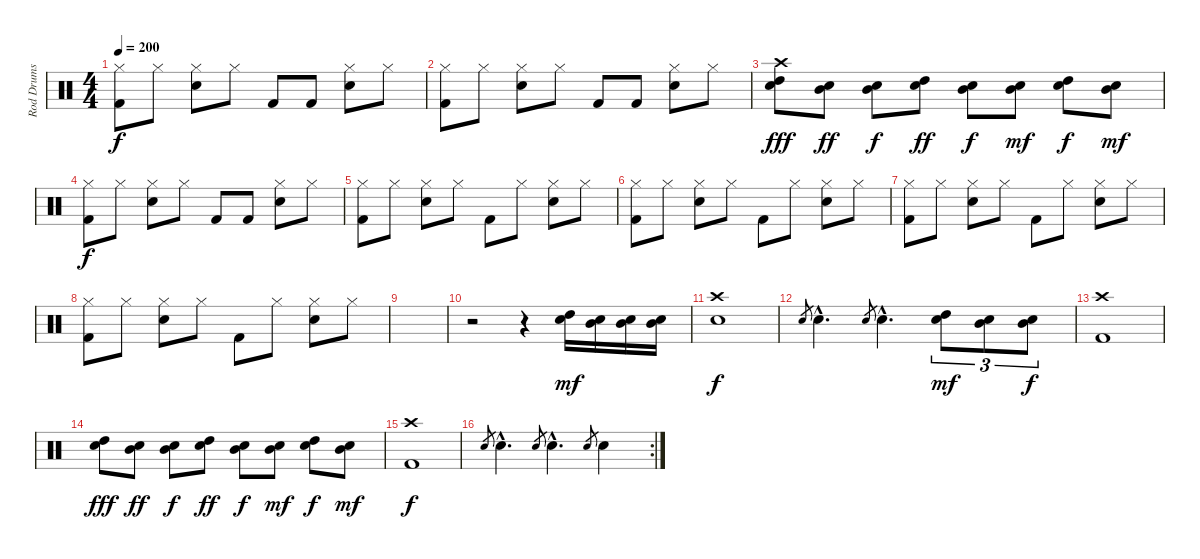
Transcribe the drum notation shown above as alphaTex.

\track ("Rod Drums" "Rod Drums") {instrument percussion}
\staff {score}
\articulation defaults
\ts (4 4)
\tempo 200
\clef neutral
\ks c
("Kick (hit) 2" "Hi-Hat (closed)").8{dy f} "Hi-Hat (closed)".8 ("Snare (hit) 2" "Hi-Hat (closed)").8 "Hi-Hat (closed)".8 "Kick (hit) 2".8 "Kick (hit) 2".8 ("Snare (hit) 2" "Hi-Hat (closed)").8 "Hi-Hat (closed)".8 |
("Kick (hit) 2" "Hi-Hat (closed)").8 "Hi-Hat (closed)".8 ("Snare (hit) 2" "Hi-Hat (closed)").8 "Hi-Hat (closed)".8 "Kick (hit) 2".8 "Kick (hit) 2".8 ("Snare (hit) 2" "Hi-Hat (closed)").8 "Hi-Hat (closed)".8 |
("Snare (hit) 2" "High Tom (hit)" "Crash high (hit)").8{dy fff} ("Snare (hit) 2" "Mid Tom (hit)").8{dy ff} ("Snare (hit) 2" "Mid Tom (hit)").8{dy f} ("Snare (hit) 2" "High Tom (hit)").8{dy ff} ("Snare (hit) 2" "Mid Tom (hit)").8{dy f} ("Snare (hit) 2" "Mid Tom (hit)").8{dy mf} ("Snare (hit) 2" "High Tom (hit)").8{dy f} ("Snare (hit) 2" "Mid Tom (hit)").8{dy mf} |
("Kick (hit) 2" "Hi-Hat (closed)").8{dy f} "Hi-Hat (closed)".8 ("Snare (hit) 2" "Hi-Hat (closed)").8 "Hi-Hat (closed)".8 "Kick (hit) 2".8 "Kick (hit) 2".8 ("Snare (hit) 2" "Hi-Hat (closed)").8 "Hi-Hat (closed)".8 |
("Kick (hit) 2" "Hi-Hat (closed)").8 "Hi-Hat (closed)".8 ("Snare (hit) 2" "Hi-Hat (closed)").8 "Hi-Hat (closed)".8 "Kick (hit) 2".8 "Hi-Hat (closed)".8 ("Snare (hit) 2" "Hi-Hat (closed)").8 "Hi-Hat (closed)".8 |
("Kick (hit) 2" "Hi-Hat (closed)").8 "Hi-Hat (closed)".8 ("Snare (hit) 2" "Hi-Hat (closed)").8 "Hi-Hat (closed)".8 "Kick (hit) 2".8 "Hi-Hat (closed)".8 ("Snare (hit) 2" "Hi-Hat (closed)").8 "Hi-Hat (closed)".8 |
("Kick (hit) 2" "Hi-Hat (closed)").8 "Hi-Hat (closed)".8 ("Snare (hit) 2" "Hi-Hat (closed)").8 "Hi-Hat (closed)".8 "Kick (hit) 2".8 "Hi-Hat (closed)".8 ("Snare (hit) 2" "Hi-Hat (closed)").8 "Hi-Hat (closed)".8 |
("Kick (hit) 2" "Hi-Hat (closed)").8 "Hi-Hat (closed)".8 ("Snare (hit) 2" "Hi-Hat (closed)").8 "Hi-Hat (closed)".8 "Kick (hit) 2".8 "Hi-Hat (closed)".8 ("Snare (hit) 2" "Hi-Hat (closed)").8 "Hi-Hat (closed)".8 |
|
r.2 r.4 ("High Tom (hit)" "Snare (hit) 2").16{dy mf} ("Mid Tom (hit)" "Snare (hit) 2").16 ("Mid Tom (hit)" "Snare (hit) 2").16 ("Mid Tom (hit)" "Snare (hit) 2").16 |
("Crash high (hit)" "Snare (hit) 2").1{dy f} |
"Snare (hit) 2".8{gr} "Snare (hit) 2"{hac}.4{d} "Snare (hit) 2".8{gr} "Snare (hit) 2"{hac}.4{d} ("High Tom (hit)" "Snare (hit) 2").8{tu (3 2) dy mf} ("Mid Tom (hit)" "Snare (hit) 2").8{tu (3 2)} ("Mid Tom (hit)" "Snare (hit) 2").8{tu (3 2) dy f} |
("Crash high (hit)" "Kick (hit) 2").1 |
("Snare (hit) 2" "High Tom (hit)").8{dy fff} ("Snare (hit) 2" "Mid Tom (hit)").8{dy ff} ("Snare (hit) 2" "Mid Tom (hit)").8{dy f} ("Snare (hit) 2" "High Tom (hit)").8{dy ff} ("Snare (hit) 2" "Mid Tom (hit)").8{dy f} ("Snare (hit) 2" "Mid Tom (hit)").8{dy mf} ("Snare (hit) 2" "High Tom (hit)").8{dy f} ("Snare (hit) 2" "Mid Tom (hit)").8{dy mf} |
("Crash high (hit)" "Kick (hit) 2").1{dy f} |
\rc 2 "Snare (hit) 2".8{gr} "Snare (hit) 2"{hac}.4{d} "Snare (hit) 2".8{gr} "Snare (hit) 2"{hac}.4{d} "Snare (hit) 2".8{gr} "Snare (hit) 2".4
